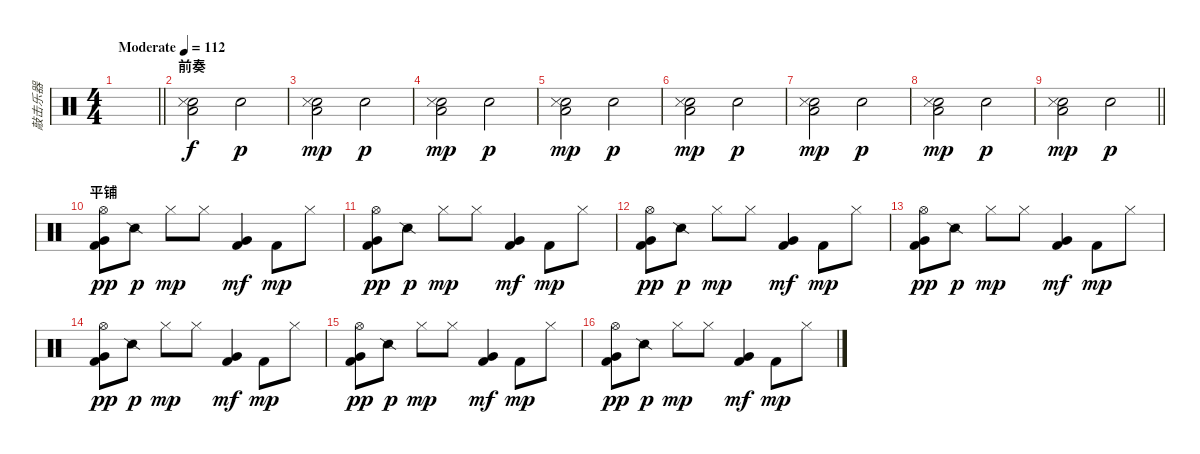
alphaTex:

\track ("敲击乐器" "敲击乐器") {instrument percussion}
\staff {score}
\articulation defaults
\ts (4 4)
\tempo (112 "Moderate")
\clef neutral
\barLineRight lightlight
\ks c
|
\section ("" "前奏")
("Snare (hit) 2" "Snare (side stick) 3" "Low Floor Tom (hit)").2 "Electric Snare (hit)".2{dy p} |
("Snare (hit) 2" "Snare (side stick) 3" "Low Floor Tom (hit)").2{dy mp} "Electric Snare (hit)".2{dy p} |
("Snare (hit) 2" "Snare (side stick) 3" "Low Floor Tom (hit)").2{dy mp} "Electric Snare (hit)".2{dy p} |
("Snare (hit) 2" "Snare (side stick) 3" "Low Floor Tom (hit)").2{dy mp} "Electric Snare (hit)".2{dy p} |
("Snare (hit) 2" "Snare (side stick) 3" "Low Floor Tom (hit)").2{dy mp} "Electric Snare (hit)".2{dy p} |
("Snare (hit) 2" "Snare (side stick) 3" "Low Floor Tom (hit)").2{dy mp} "Electric Snare (hit)".2{dy p} |
("Snare (hit) 2" "Snare (side stick) 3" "Low Floor Tom (hit)").2{dy mp} "Electric Snare (hit)".2{dy p} |
\barLineRight lightlight
("Snare (hit) 2" "Snare (side stick) 3" "Low Floor Tom (hit)").2{dy mp} "Electric Snare (hit)".2{dy p} |
\section ("" "平铺")
("Very Low Tom (hit)" "Kick (hit) 2" "Hi-Hat (open)").8{dy pp} "Snare (side stick) 2".8{dy p} "Hi-Hat (closed)".8{dy mp} "Hi-Hat (closed)".8 ("Very Low Tom (hit)" "Kick (hit) 2").4{dy mf} "Kick (hit) 2".8{dy mp} "Hi-Hat (closed)".8 |
("Very Low Tom (hit)" "Kick (hit) 2" "Hi-Hat (open)").8{dy pp} "Snare (side stick) 2".8{dy p} "Hi-Hat (closed)".8{dy mp} "Hi-Hat (closed)".8 ("Very Low Tom (hit)" "Kick (hit) 2").4{dy mf} "Kick (hit) 2".8{dy mp} "Hi-Hat (closed)".8 |
("Very Low Tom (hit)" "Kick (hit) 2" "Hi-Hat (open)").8{dy pp} "Snare (side stick) 2".8{dy p} "Hi-Hat (closed)".8{dy mp} "Hi-Hat (closed)".8 ("Very Low Tom (hit)" "Kick (hit) 2").4{dy mf} "Kick (hit) 2".8{dy mp} "Hi-Hat (closed)".8 |
("Very Low Tom (hit)" "Kick (hit) 2" "Hi-Hat (open)").8{dy pp} "Snare (side stick) 2".8{dy p} "Hi-Hat (closed)".8{dy mp} "Hi-Hat (closed)".8 ("Very Low Tom (hit)" "Kick (hit) 2").4{dy mf} "Kick (hit) 2".8{dy mp} "Hi-Hat (closed)".8 |
("Very Low Tom (hit)" "Kick (hit) 2" "Hi-Hat (open)").8{dy pp} "Snare (side stick) 2".8{dy p} "Hi-Hat (closed)".8{dy mp} "Hi-Hat (closed)".8 ("Very Low Tom (hit)" "Kick (hit) 2").4{dy mf} "Kick (hit) 2".8{dy mp} "Hi-Hat (closed)".8 |
("Very Low Tom (hit)" "Kick (hit) 2" "Hi-Hat (open)").8{dy pp} "Snare (side stick) 2".8{dy p} "Hi-Hat (closed)".8{dy mp} "Hi-Hat (closed)".8 ("Very Low Tom (hit)" "Kick (hit) 2").4{dy mf} "Kick (hit) 2".8{dy mp} "Hi-Hat (closed)".8 |
("Very Low Tom (hit)" "Kick (hit) 2" "Hi-Hat (open)").8{dy pp} "Snare (side stick) 2".8{dy p} "Hi-Hat (closed)".8{dy mp} "Hi-Hat (closed)".8 ("Very Low Tom (hit)" "Kick (hit) 2").4{dy mf} "Kick (hit) 2".8{dy mp} "Hi-Hat (closed)".8
